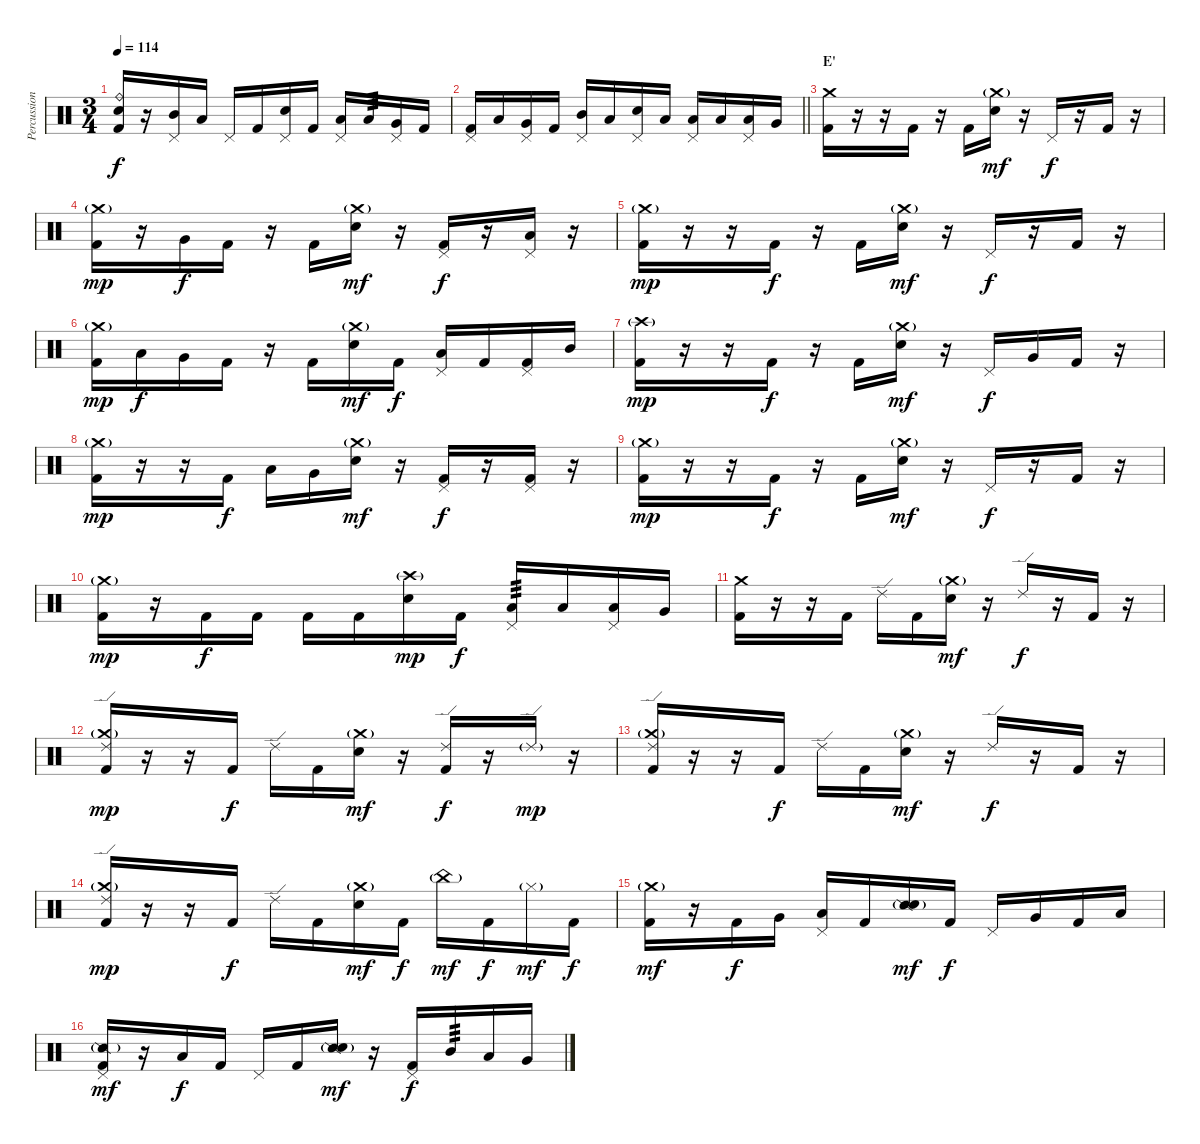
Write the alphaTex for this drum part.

\track ("Percussion" "Percussion") {instrument percussion}
\staff {score}
\articulation defaults
\ts (3 4)
\tempo 114
\clef neutral
\ks c
("Ride (bell)" "Snare (hit)" "Kick (hit) 2").16{dy f} r.16 ("Pedal Hi-Hat (hit)" "Mid Tom (hit)").16 "Low Tom (hit)".16 "Pedal Hi-Hat (hit)".16 "Kick (hit) 2".16 ("Pedal Hi-Hat (hit)" "Snare (hit) 2").16 "Kick (hit) 2".16 ("Pedal Hi-Hat (hit)" "Low Floor Tom (hit)").16 "Low Tom (hit)".16{tp 3} ("Pedal Hi-Hat (hit)" "Very Low Tom (hit)").16 "Kick (hit) 2".16 |
\barLineRight lightlight
("Pedal Hi-Hat (hit)" "Kick (hit) 2").16 "Low Tom (hit)".16 ("Pedal Hi-Hat (hit)" "Very Low Tom (hit)").16 "Kick (hit) 2".16 ("Pedal Hi-Hat (hit)" "Mid Tom (hit)").16 "Low Tom (hit)".16 ("Pedal Hi-Hat (hit)" "Snare (hit) 2").16 "Low Tom (hit)".16 ("Pedal Hi-Hat (hit)" "Low Floor Tom (hit)").16 "Low Tom (hit)".16 ("Pedal Hi-Hat (hit)" "Low Tom (hit)").16 "Very Low Tom (hit)".16 |
\section ("" "E'")
("Crash medium (hit)" "Kick (hit) 2").16 r.16 r.16 "Kick (hit) 2".16 r.16 "Kick (hit) 2".16 ("Crash medium (hit)"{g} "Snare (hit) 2").16{dy mf} r.16 "Pedal Hi-Hat (hit)".16{dy f} r.16 "Kick (hit) 2".16 r.16 |
("Crash medium (hit)"{g} "Kick (hit) 2").16{dy mp} r.16 "Very Low Tom (hit)".16{dy f} "Kick (hit) 2".16 r.16 "Kick (hit) 2".16 ("Crash medium (hit)"{g} "Snare (hit) 2").16{dy mf} r.16 ("Pedal Hi-Hat (hit)" "Kick (hit) 2").16{dy f} r.16 ("Pedal Hi-Hat (hit)" "Low Tom (hit)").16 r.16 |
("Crash medium (hit)"{g} "Kick (hit) 2").16{dy mp} r.16 r.16 "Kick (hit) 2".16{dy f} r.16 "Kick (hit) 2".16 ("Crash medium (hit)"{g} "Snare (hit) 2").16{dy mf} r.16 "Pedal Hi-Hat (hit)".16{dy f} r.16 "Kick (hit) 2".16 r.16 |
("Crash medium (hit)"{g} "Kick (hit) 2").16{dy mp} "Low Tom (hit)".16{dy f} "Very Low Tom (hit)".16 "Kick (hit) 2".16 r.16 "Kick (hit) 2".16 ("Crash medium (hit)"{g} "Snare (hit) 2").16{dy mf} "Kick (hit) 2".16{dy f} ("Pedal Hi-Hat (hit)" "Low Tom (hit)").16 "Kick (hit) 2".16 ("Pedal Hi-Hat (hit)" "Kick (hit) 2").16 "Mid Tom (hit)".16 |
("Crash high (hit)"{g} "Kick (hit) 2").16{dy mp} r.16 r.16 "Kick (hit) 2".16{dy f} r.16 "Kick (hit) 2".16 ("Crash medium (hit)"{g} "Snare (hit) 2").16{dy mf} r.16 "Pedal Hi-Hat (hit)".16{dy f} "Very Low Tom (hit)".16 "Kick (hit) 2".16 r.16 |
("Crash medium (hit)"{g} "Kick (hit) 2").16{dy mp} r.16 r.16 "Kick (hit) 2".16{dy f} "Low Tom (hit)".16 "Very Low Tom (hit)".16 ("Crash medium (hit)"{g} "Snare (hit) 2").16{dy mf} r.16 ("Pedal Hi-Hat (hit)" "Kick (hit) 2").16{dy f} r.16 ("Pedal Hi-Hat (hit)" "Kick (hit) 2").16 r.16 |
("Crash medium (hit)"{g} "Kick (hit) 2").16{dy mp} r.16 r.16 "Kick (hit) 2".16{dy f} r.16 "Kick (hit) 2".16 ("Crash medium (hit)"{g} "Snare (hit) 2").16{dy mf} r.16 "Pedal Hi-Hat (hit)".16{dy f} r.16 "Kick (hit) 2".16 r.16 |
("Crash medium (hit)"{g} "Kick (hit) 2").16{dy mp} r.16 "Kick (hit) 2".16{dy f} "Kick (hit) 2".16 "Kick (hit) 2".16 "Kick (hit) 2".16 ("Crash high (hit)"{g} "Snare (hit) 2").16{dy mp} "Kick (hit) 2".16{dy f} ("Pedal Hi-Hat (hit)" "Low Tom (hit)").16{tp 3} "Low Tom (hit)".16 ("Pedal Hi-Hat (hit)" "Low Tom (hit)").16 "Very Low Tom (hit)".16 |
("Crash medium (hit)" "Kick (hit) 2").16 r.16 r.16 "Kick (hit) 2".16 "Ride (edge) 2".16 "Kick (hit) 2".16 ("Crash medium (hit)"{g} "Snare (hit) 2").16{dy mf} r.16 "Ride (edge) 2".16{dy f} r.16 "Kick (hit) 2".16 r.16 |
("Crash medium (hit)"{g} "Ride (edge) 2" "Kick (hit) 2").16{dy mp} r.16 r.16 "Kick (hit) 2".16{dy f} "Ride (edge) 2".16 "Kick (hit) 2".16 ("Crash medium (hit)"{g} "Snare (hit) 2").16{dy mf} r.16 ("Ride (edge) 2" "Kick (hit) 2").16{dy f} r.16 "Ride (edge) 2"{g}.16{dy mp} r.16 |
("Crash medium (hit)"{g} "Ride (edge) 2" "Kick (hit) 2").16 r.16 r.16 "Kick (hit) 2".16{dy f} "Ride (edge) 2".16 "Kick (hit) 2".16 ("Crash medium (hit)"{g} "Snare (hit) 2").16{dy mf} r.16 "Ride (edge) 2".16{dy f} r.16 "Kick (hit) 2".16 r.16 |
("Crash medium (hit)"{g} "Ride (edge) 2" "Kick (hit) 2").16{dy mp} r.16 r.16 "Kick (hit) 2".16{dy f} "Ride (edge) 2".16 "Kick (hit) 2".16 ("Crash medium (hit)"{g} "Snare (hit) 2").16{dy mf} "Kick (hit) 2".16{dy f} "China (hit)"{g}.16{dy mf} "Kick (hit) 2".16{dy f} "Hi-Hat (closed)"{g}.16{dy mf} "Kick (hit) 2".16{dy f} |
("Crash medium (hit)"{g} "Kick (hit) 2").16{dy mf} r.16 "Kick (hit) 2".16{dy f} "Very Low Tom (hit)".16 ("Pedal Hi-Hat (hit)" "Low Tom (hit)").16 "Kick (hit) 2".16 ("Snare (side stick) 2"{g} "Snare (hit) 2").16{dy mf} "Kick (hit) 2".16{dy f} "Pedal Hi-Hat (hit)".16 "Very Low Tom (hit)".16 "Kick (hit) 2".16 "Low Tom (hit)".16 |
("Snare (side stick) 2"{g} "Pedal Hi-Hat (hit)" "Kick (hit) 2").16{dy mf} r.16 "Low Tom (hit)".16{dy f} "Kick (hit) 2".16 "Pedal Hi-Hat (hit)".16 "Kick (hit) 2".16 ("Snare (side stick) 2"{g} "Snare (hit) 2").16{dy mf} r.16 ("Pedal Hi-Hat (hit)" "Kick (hit) 2").16{dy f} "Mid Tom (hit)".16{tp 3} "Low Tom (hit)".16 "Very Low Tom (hit)".16
